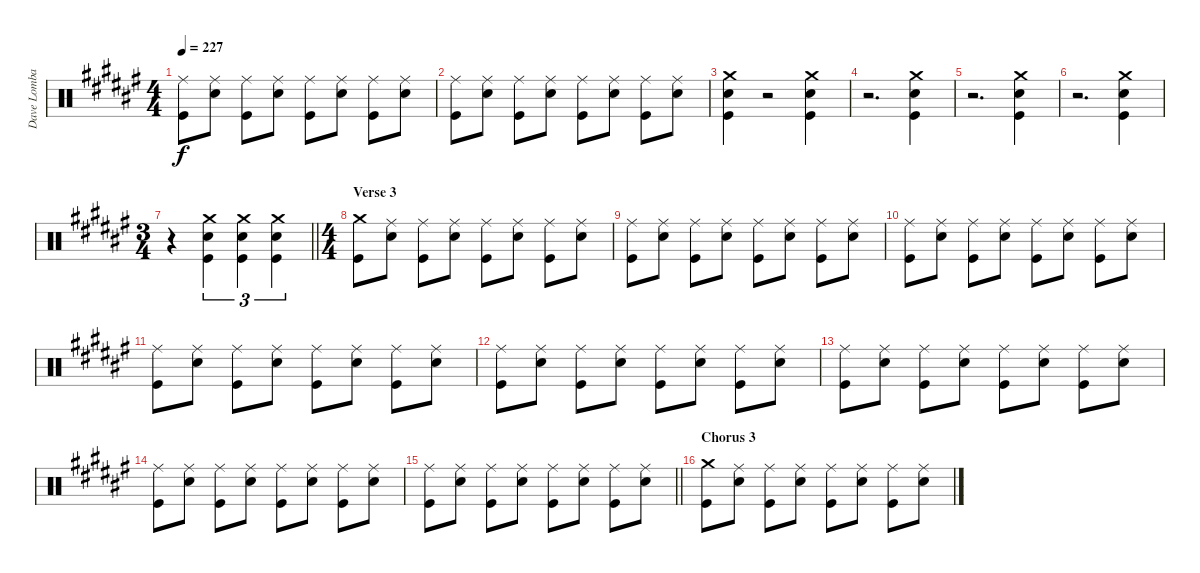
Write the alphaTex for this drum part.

\track ("Dave Lombardo" "Dave Lomba") {instrument percussion}
\staff {score}
\articulation defaults
\ts (4 4)
\tempo 227
\clef neutral
\ks f#
("Ride (middle)" "Kick (hit)").8{dy f} ("Ride (middle)" "Snare (hit) 2").8 ("Ride (middle)" "Kick (hit)").8 ("Ride (middle)" "Snare (hit) 2").8 ("Ride (middle)" "Kick (hit)").8 ("Ride (middle)" "Snare (hit) 2").8 ("Ride (middle)" "Kick (hit)").8 ("Ride (middle)" "Snare (hit) 2").8 |
("Ride (middle)" "Kick (hit)").8 ("Ride (middle)" "Snare (hit) 2").8 ("Ride (middle)" "Kick (hit)").8 ("Ride (middle)" "Snare (hit) 2").8 ("Ride (middle)" "Kick (hit)").8 ("Ride (middle)" "Snare (hit) 2").8 ("Ride (middle)" "Kick (hit)").8 ("Ride (middle)" "Snare (hit) 2").8 |
("Crash medium (hit)" "Snare (hit) 2" "Kick (hit)").4 r.2 ("Crash medium (hit)" "Snare (hit) 2" "Kick (hit)").4 |
r.2{d} ("Crash medium (hit)" "Snare (hit) 2" "Kick (hit)").4 |
r.2{d} ("Crash medium (hit)" "Snare (hit) 2" "Kick (hit)").4 |
r.2{d} ("Crash medium (hit)" "Snare (hit) 2" "Kick (hit)").4 |
\ts (3 4)
\barLineRight lightlight
r.4 ("Crash medium (hit)" "Snare (hit) 2" "Kick (hit)").4{tu (3 2)} ("Crash medium (hit)" "Snare (hit) 2" "Kick (hit)").4{tu (3 2)} ("Crash medium (hit)" "Snare (hit) 2" "Kick (hit)").4{tu (3 2)} |
\ts (4 4)
\section ("" "Verse 3")
("Crash medium (hit)" "Kick (hit)").8 ("Ride (middle)" "Snare (hit) 2").8 ("Ride (middle)" "Kick (hit)").8 ("Ride (middle)" "Snare (hit) 2").8 ("Ride (middle)" "Kick (hit)").8 ("Ride (middle)" "Snare (hit) 2").8 ("Ride (middle)" "Kick (hit)").8 ("Ride (middle)" "Snare (hit) 2").8 |
("Ride (middle)" "Kick (hit)").8 ("Ride (middle)" "Snare (hit) 2").8 ("Ride (middle)" "Kick (hit)").8 ("Ride (middle)" "Snare (hit) 2").8 ("Ride (middle)" "Kick (hit)").8 ("Ride (middle)" "Snare (hit) 2").8 ("Ride (middle)" "Kick (hit)").8 ("Ride (middle)" "Snare (hit) 2").8 |
("Ride (middle)" "Kick (hit)").8 ("Ride (middle)" "Snare (hit) 2").8 ("Ride (middle)" "Kick (hit)").8 ("Ride (middle)" "Snare (hit) 2").8 ("Ride (middle)" "Kick (hit)").8 ("Ride (middle)" "Snare (hit) 2").8 ("Ride (middle)" "Kick (hit)").8 ("Ride (middle)" "Snare (hit) 2").8 |
("Ride (middle)" "Kick (hit)").8 ("Ride (middle)" "Snare (hit) 2").8 ("Ride (middle)" "Kick (hit)").8 ("Ride (middle)" "Snare (hit) 2").8 ("Ride (middle)" "Kick (hit)").8 ("Ride (middle)" "Snare (hit) 2").8 ("Ride (middle)" "Kick (hit)").8 ("Ride (middle)" "Snare (hit) 2").8 |
("Ride (middle)" "Kick (hit)").8 ("Ride (middle)" "Snare (hit) 2").8 ("Ride (middle)" "Kick (hit)").8 ("Ride (middle)" "Snare (hit) 2").8 ("Ride (middle)" "Kick (hit)").8 ("Ride (middle)" "Snare (hit) 2").8 ("Ride (middle)" "Kick (hit)").8 ("Ride (middle)" "Snare (hit) 2").8 |
("Ride (middle)" "Kick (hit)").8 ("Ride (middle)" "Snare (hit) 2").8 ("Ride (middle)" "Kick (hit)").8 ("Ride (middle)" "Snare (hit) 2").8 ("Ride (middle)" "Kick (hit)").8 ("Ride (middle)" "Snare (hit) 2").8 ("Ride (middle)" "Kick (hit)").8 ("Ride (middle)" "Snare (hit) 2").8 |
("Ride (middle)" "Kick (hit)").8 ("Ride (middle)" "Snare (hit) 2").8 ("Ride (middle)" "Kick (hit)").8 ("Ride (middle)" "Snare (hit) 2").8 ("Ride (middle)" "Kick (hit)").8 ("Ride (middle)" "Snare (hit) 2").8 ("Ride (middle)" "Kick (hit)").8 ("Ride (middle)" "Snare (hit) 2").8 |
\barLineRight lightlight
("Ride (middle)" "Kick (hit)").8 ("Ride (middle)" "Snare (hit) 2").8 ("Ride (middle)" "Kick (hit)").8 ("Ride (middle)" "Snare (hit) 2").8 ("Ride (middle)" "Kick (hit)").8 ("Ride (middle)" "Snare (hit) 2").8 ("Ride (middle)" "Kick (hit)").8 ("Ride (middle)" "Snare (hit) 2").8 |
\section ("" "Chorus 3")
("Crash medium (hit)" "Kick (hit)").8 ("Ride (middle)" "Snare (hit) 2").8 ("Ride (middle)" "Kick (hit)").8 ("Ride (middle)" "Snare (hit) 2").8 ("Ride (middle)" "Kick (hit)").8 ("Ride (middle)" "Snare (hit) 2").8 ("Ride (middle)" "Kick (hit)").8 ("Ride (middle)" "Snare (hit) 2").8
